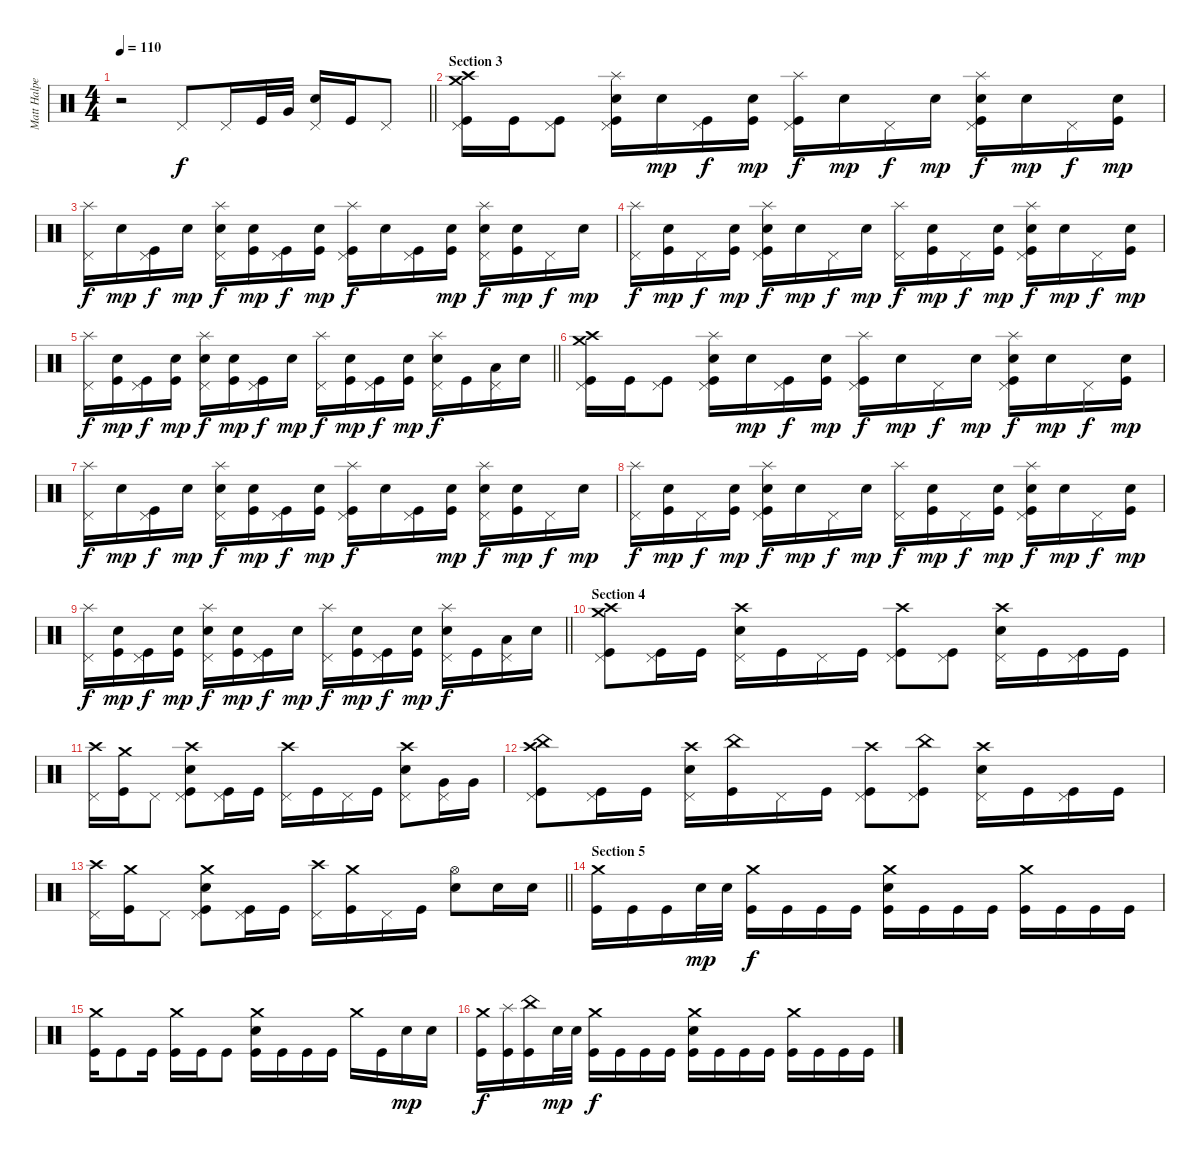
\track ("Matt Halpern" "Matt Halpe") {instrument percussion}
\staff {score}
\articulation defaults
\ts (4 4)
\tempo 110
\clef neutral
\barLineRight lightlight
\ks c
r.2{dy f} "Pedal Hi-Hat (hit)".8 "Pedal Hi-Hat (hit)".16 "Kick (hit)".32 "Very Low Tom (hit)".32 ("Electric Snare (hit)" "Pedal Hi-Hat (hit)").16 "Kick (hit)".16 "Pedal Hi-Hat (hit)".8 |
\section ("" "Section 3")
("Crash high (hit)" "Crash medium (hit)" "Kick (hit)" "Pedal Hi-Hat (hit)").16 "Kick (hit)".16 ("Kick (hit)" "Pedal Hi-Hat (hit)").8 ("Splash (hit)" "Electric Snare (hit)" "Kick (hit)" "Pedal Hi-Hat (hit)").16 "Electric Snare (hit)".16{dy mp} ("Kick (hit)" "Pedal Hi-Hat (hit)").16{dy f} ("Electric Snare (hit)" "Kick (hit)").16{dy mp} ("Splash (hit)" "Kick (hit)" "Pedal Hi-Hat (hit)").16{dy f} "Electric Snare (hit)".16{dy mp} "Pedal Hi-Hat (hit)".16{dy f} "Electric Snare (hit)".16{dy mp} ("Splash (hit)" "Electric Snare (hit)" "Kick (hit)" "Pedal Hi-Hat (hit)").16{dy f} "Electric Snare (hit)".16{dy mp} "Pedal Hi-Hat (hit)".16{dy f} ("Electric Snare (hit)" "Kick (hit)").16{dy mp} |
("Splash (hit)" "Pedal Hi-Hat (hit)").16{dy f} "Electric Snare (hit)".16{dy mp} ("Kick (hit)" "Pedal Hi-Hat (hit)").16{dy f} "Electric Snare (hit)".16{dy mp} ("Splash (hit)" "Electric Snare (hit)" "Pedal Hi-Hat (hit)").16{dy f} ("Electric Snare (hit)" "Kick (hit)").16{dy mp} ("Kick (hit)" "Pedal Hi-Hat (hit)").16{dy f} ("Electric Snare (hit)" "Kick (hit)").16{dy mp} ("Splash (hit)" "Kick (hit)" "Pedal Hi-Hat (hit)").16{dy f} "Electric Snare (hit)".16 ("Kick (hit)" "Pedal Hi-Hat (hit)").16 ("Electric Snare (hit)" "Kick (hit)").16{dy mp} ("Splash (hit)" "Electric Snare (hit)" "Pedal Hi-Hat (hit)").16{dy f} ("Electric Snare (hit)" "Kick (hit)").16{dy mp} "Pedal Hi-Hat (hit)".16{dy f} "Electric Snare (hit)".16{dy mp} |
("Splash (hit)" "Pedal Hi-Hat (hit)").16{dy f} ("Electric Snare (hit)" "Kick (hit)").16{dy mp} "Pedal Hi-Hat (hit)".16{dy f} ("Electric Snare (hit)" "Kick (hit)").16{dy mp} ("Splash (hit)" "Electric Snare (hit)" "Kick (hit)" "Pedal Hi-Hat (hit)").16{dy f} "Electric Snare (hit)".16{dy mp} "Pedal Hi-Hat (hit)".16{dy f} "Electric Snare (hit)".16{dy mp} ("Splash (hit)" "Pedal Hi-Hat (hit)").16{dy f} ("Electric Snare (hit)" "Kick (hit)").16{dy mp} "Pedal Hi-Hat (hit)".16{dy f} ("Electric Snare (hit)" "Kick (hit)").16{dy mp} ("Splash (hit)" "Electric Snare (hit)" "Kick (hit)" "Pedal Hi-Hat (hit)").16{dy f} "Electric Snare (hit)".16{dy mp} "Pedal Hi-Hat (hit)".16{dy f} ("Electric Snare (hit)" "Kick (hit)").16{dy mp} |
\barLineRight lightlight
("Splash (hit)" "Pedal Hi-Hat (hit)").16{dy f} ("Electric Snare (hit)" "Kick (hit)").16{dy mp} ("Kick (hit)" "Pedal Hi-Hat (hit)").16{dy f} ("Electric Snare (hit)" "Kick (hit)").16{dy mp} ("Splash (hit)" "Electric Snare (hit)" "Pedal Hi-Hat (hit)").16{dy f} ("Electric Snare (hit)" "Kick (hit)").16{dy mp} ("Kick (hit)" "Pedal Hi-Hat (hit)").16{dy f} "Electric Snare (hit)".16{dy mp} ("Splash (hit)" "Pedal Hi-Hat (hit)").16{dy f} ("Electric Snare (hit)" "Kick (hit)").16{dy mp} ("Kick (hit)" "Pedal Hi-Hat (hit)").16{dy f} ("Electric Snare (hit)" "Kick (hit)").16{dy mp} ("Splash (hit)" "Electric Snare (hit)" "Pedal Hi-Hat (hit)").16{dy f} "Kick (hit)".16 ("Low Tom (hit)" "Pedal Hi-Hat (hit)").16 "Electric Snare (hit)".16 |
("Crash high (hit)" "Crash medium (hit)" "Kick (hit)" "Pedal Hi-Hat (hit)").16 "Kick (hit)".16 ("Kick (hit)" "Pedal Hi-Hat (hit)").8 ("Splash (hit)" "Electric Snare (hit)" "Kick (hit)" "Pedal Hi-Hat (hit)").16 "Electric Snare (hit)".16{dy mp} ("Kick (hit)" "Pedal Hi-Hat (hit)").16{dy f} ("Electric Snare (hit)" "Kick (hit)").16{dy mp} ("Splash (hit)" "Kick (hit)" "Pedal Hi-Hat (hit)").16{dy f} "Electric Snare (hit)".16{dy mp} "Pedal Hi-Hat (hit)".16{dy f} "Electric Snare (hit)".16{dy mp} ("Splash (hit)" "Electric Snare (hit)" "Kick (hit)" "Pedal Hi-Hat (hit)").16{dy f} "Electric Snare (hit)".16{dy mp} "Pedal Hi-Hat (hit)".16{dy f} ("Electric Snare (hit)" "Kick (hit)").16{dy mp} |
("Splash (hit)" "Pedal Hi-Hat (hit)").16{dy f} "Electric Snare (hit)".16{dy mp} ("Kick (hit)" "Pedal Hi-Hat (hit)").16{dy f} "Electric Snare (hit)".16{dy mp} ("Splash (hit)" "Electric Snare (hit)" "Pedal Hi-Hat (hit)").16{dy f} ("Electric Snare (hit)" "Kick (hit)").16{dy mp} ("Kick (hit)" "Pedal Hi-Hat (hit)").16{dy f} ("Electric Snare (hit)" "Kick (hit)").16{dy mp} ("Splash (hit)" "Kick (hit)" "Pedal Hi-Hat (hit)").16{dy f} "Electric Snare (hit)".16 ("Kick (hit)" "Pedal Hi-Hat (hit)").16 ("Electric Snare (hit)" "Kick (hit)").16{dy mp} ("Splash (hit)" "Electric Snare (hit)" "Pedal Hi-Hat (hit)").16{dy f} ("Electric Snare (hit)" "Kick (hit)").16{dy mp} "Pedal Hi-Hat (hit)".16{dy f} "Electric Snare (hit)".16{dy mp} |
("Splash (hit)" "Pedal Hi-Hat (hit)").16{dy f} ("Electric Snare (hit)" "Kick (hit)").16{dy mp} "Pedal Hi-Hat (hit)".16{dy f} ("Electric Snare (hit)" "Kick (hit)").16{dy mp} ("Splash (hit)" "Electric Snare (hit)" "Kick (hit)" "Pedal Hi-Hat (hit)").16{dy f} "Electric Snare (hit)".16{dy mp} "Pedal Hi-Hat (hit)".16{dy f} "Electric Snare (hit)".16{dy mp} ("Splash (hit)" "Pedal Hi-Hat (hit)").16{dy f} ("Electric Snare (hit)" "Kick (hit)").16{dy mp} "Pedal Hi-Hat (hit)".16{dy f} ("Electric Snare (hit)" "Kick (hit)").16{dy mp} ("Splash (hit)" "Electric Snare (hit)" "Kick (hit)" "Pedal Hi-Hat (hit)").16{dy f} "Electric Snare (hit)".16{dy mp} "Pedal Hi-Hat (hit)".16{dy f} ("Electric Snare (hit)" "Kick (hit)").16{dy mp} |
\barLineRight lightlight
("Splash (hit)" "Pedal Hi-Hat (hit)").16{dy f} ("Electric Snare (hit)" "Kick (hit)").16{dy mp} ("Kick (hit)" "Pedal Hi-Hat (hit)").16{dy f} ("Electric Snare (hit)" "Kick (hit)").16{dy mp} ("Splash (hit)" "Electric Snare (hit)" "Pedal Hi-Hat (hit)").16{dy f} ("Electric Snare (hit)" "Kick (hit)").16{dy mp} ("Kick (hit)" "Pedal Hi-Hat (hit)").16{dy f} "Electric Snare (hit)".16{dy mp} ("Splash (hit)" "Pedal Hi-Hat (hit)").16{dy f} ("Electric Snare (hit)" "Kick (hit)").16{dy mp} ("Kick (hit)" "Pedal Hi-Hat (hit)").16{dy f} ("Electric Snare (hit)" "Kick (hit)").16{dy mp} ("Splash (hit)" "Electric Snare (hit)" "Pedal Hi-Hat (hit)").16{dy f} "Kick (hit)".16 ("Low Tom (hit)" "Pedal Hi-Hat (hit)").16 "Electric Snare (hit)".16 |
\section ("" "Section 4")
("Crash high (hit)" "Crash medium (hit)" "Kick (hit)" "Pedal Hi-Hat (hit)").8 ("Kick (hit)" "Pedal Hi-Hat (hit)").16 "Kick (hit)".16 ("Crash high (hit)" "Electric Snare (hit)" "Pedal Hi-Hat (hit)").16 "Kick (hit)".16 "Pedal Hi-Hat (hit)".16 "Kick (hit)".16 ("Crash high (hit)" "Kick (hit)" "Pedal Hi-Hat (hit)").8 ("Kick (hit)" "Pedal Hi-Hat (hit)").8 ("Crash high (hit)" "Electric Snare (hit)" "Pedal Hi-Hat (hit)").16 "Kick (hit)".16 ("Kick (hit)" "Pedal Hi-Hat (hit)").16 "Kick (hit)".16 |
("Crash high (hit)" "Pedal Hi-Hat (hit)").16 ("Crash medium (hit)" "Kick (hit)").16 "Pedal Hi-Hat (hit)".8 ("Crash high (hit)" "Electric Snare (hit)" "Kick (hit)" "Pedal Hi-Hat (hit)").8 ("Kick (hit)" "Pedal Hi-Hat (hit)").16 "Kick (hit)".16 ("Crash high (hit)" "Pedal Hi-Hat (hit)").16 "Kick (hit)".16 "Pedal Hi-Hat (hit)".16 "Kick (hit)".16 ("Crash high (hit)" "Electric Snare (hit)" "Pedal Hi-Hat (hit)").8 ("Very Low Tom (hit)" "Pedal Hi-Hat (hit)").16 "Very Low Tom (hit)".16 |
("Crash high (hit)" "China (hit)" "Kick (hit)" "Pedal Hi-Hat (hit)").8 ("Kick (hit)" "Pedal Hi-Hat (hit)").16 "Kick (hit)".16 ("Crash high (hit)" "Electric Snare (hit)" "Pedal Hi-Hat (hit)").16 ("China (hit)" "Kick (hit)").16 "Pedal Hi-Hat (hit)".16 "Kick (hit)".16 ("Crash high (hit)" "Kick (hit)" "Pedal Hi-Hat (hit)").8 ("China (hit)" "Kick (hit)" "Pedal Hi-Hat (hit)").8 ("Crash high (hit)" "Electric Snare (hit)" "Pedal Hi-Hat (hit)").16 "Kick (hit)".16 ("Kick (hit)" "Pedal Hi-Hat (hit)").16 "Kick (hit)".16 |
\barLineRight lightlight
("Crash high (hit)" "Pedal Hi-Hat (hit)").16 ("Crash medium (hit)" "Kick (hit)").16 "Pedal Hi-Hat (hit)".8 ("Crash medium (hit)" "Electric Snare (hit)" "Kick (hit)" "Pedal Hi-Hat (hit)").8 ("Kick (hit)" "Pedal Hi-Hat (hit)").16 "Kick (hit)".16 ("Crash high (hit)" "Pedal Hi-Hat (hit)").16 ("Crash medium (hit)" "Kick (hit)").16 "Pedal Hi-Hat (hit)".16 "Kick (hit)".16 ("Hi-Hat (open)" "Electric Snare (hit)").8 "Electric Snare (hit)".16 "Electric Snare (hit)".16 |
\section ("" "Section 5")
("Crash medium (hit)" "Kick (hit)").16 "Kick (hit)".16 "Kick (hit)".16 "Electric Snare (hit)".32{dy mp} "Electric Snare (hit)".32 ("Crash medium (hit)" "Kick (hit)").16{dy f} "Kick (hit)".16 "Kick (hit)".16 "Kick (hit)".16 ("Crash medium (hit)" "Electric Snare (hit)" "Kick (hit)").16 "Kick (hit)".16 "Kick (hit)".16 "Kick (hit)".16 ("Crash medium (hit)" "Kick (hit)").16 "Kick (hit)".16 "Kick (hit)".16 "Kick (hit)".16 |
("Crash medium (hit)" "Kick (hit)").16 "Kick (hit)".8 "Kick (hit)".16 ("Crash medium (hit)" "Kick (hit)").16 "Kick (hit)".16 "Kick (hit)".8 ("Crash medium (hit)" "Electric Snare (hit)" "Kick (hit)").16 "Kick (hit)".16 "Kick (hit)".16 "Kick (hit)".16 "Crash medium (hit)".16 "Kick (hit)".16 "Electric Snare (hit)".16{dy mp} "Electric Snare (hit)".16 |
("Crash medium (hit)" "Kick (hit)").16{dy f} ("Splash (hit)" "Kick (hit)").16 ("China (hit)" "Kick (hit)").16 "Electric Snare (hit)".32{dy mp} "Electric Snare (hit)".32 ("Crash medium (hit)" "Kick (hit)").16{dy f} "Kick (hit)".16 "Kick (hit)".16 "Kick (hit)".16 ("Crash medium (hit)" "Electric Snare (hit)" "Kick (hit)").16 "Kick (hit)".16 "Kick (hit)".16 "Kick (hit)".16 ("Crash medium (hit)" "Kick (hit)").16 "Kick (hit)".16 "Kick (hit)".16 "Kick (hit)".16
